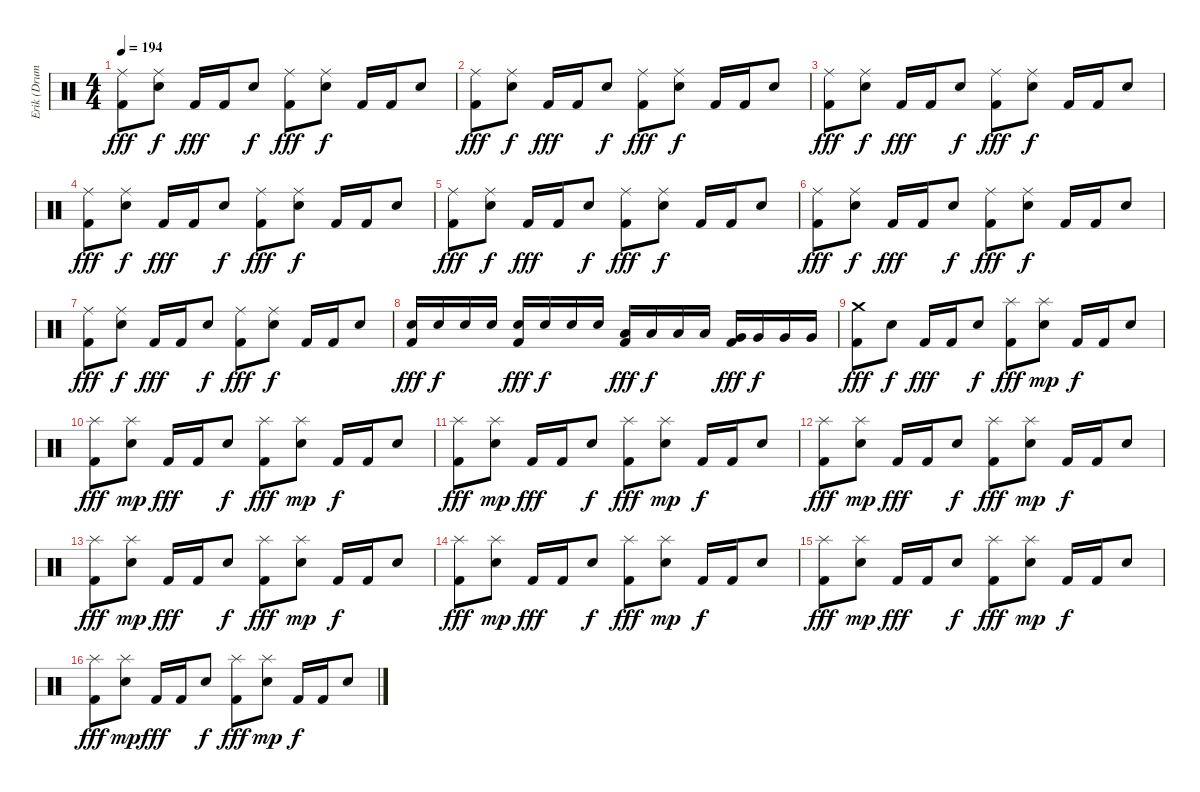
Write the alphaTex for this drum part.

\track ("Erik (Drums)" "Erik (Drum") {instrument percussion}
\staff {score}
\articulation defaults
\ts (4 4)
\tempo 194
\clef neutral
\ks c
("Ride (middle)" "Kick (hit) 2").8{dy fff} ("Ride (middle)" "Electric Snare (hit)").8{dy f} "Kick (hit) 2".16{dy fff} "Kick (hit) 2".16 "Electric Snare (hit)".8{dy f} ("Ride (middle)" "Kick (hit) 2").8{dy fff} ("Ride (middle)" "Electric Snare (hit)").8{dy f} "Kick (hit) 2".16 "Kick (hit) 2".16 "Electric Snare (hit)".8 |
("Ride (middle)" "Kick (hit) 2").8{dy fff} ("Ride (middle)" "Electric Snare (hit)").8{dy f} "Kick (hit) 2".16{dy fff} "Kick (hit) 2".16 "Electric Snare (hit)".8{dy f} ("Ride (middle)" "Kick (hit) 2").8{dy fff} ("Ride (middle)" "Electric Snare (hit)").8{dy f} "Kick (hit) 2".16 "Kick (hit) 2".16 "Electric Snare (hit)".8 |
("Ride (middle)" "Kick (hit) 2").8{dy fff} ("Ride (middle)" "Electric Snare (hit)").8{dy f} "Kick (hit) 2".16{dy fff} "Kick (hit) 2".16 "Electric Snare (hit)".8{dy f} ("Ride (middle)" "Kick (hit) 2").8{dy fff} ("Ride (middle)" "Electric Snare (hit)").8{dy f} "Kick (hit) 2".16 "Kick (hit) 2".16 "Electric Snare (hit)".8 |
("Ride (middle)" "Kick (hit) 2").8{dy fff} ("Ride (middle)" "Electric Snare (hit)").8{dy f} "Kick (hit) 2".16{dy fff} "Kick (hit) 2".16 "Electric Snare (hit)".8{dy f} ("Ride (middle)" "Kick (hit) 2").8{dy fff} ("Ride (middle)" "Electric Snare (hit)").8{dy f} "Kick (hit) 2".16 "Kick (hit) 2".16 "Electric Snare (hit)".8 |
("Ride (middle)" "Kick (hit) 2").8{dy fff} ("Ride (middle)" "Electric Snare (hit)").8{dy f} "Kick (hit) 2".16{dy fff} "Kick (hit) 2".16 "Electric Snare (hit)".8{dy f} ("Ride (middle)" "Kick (hit) 2").8{dy fff} ("Ride (middle)" "Electric Snare (hit)").8{dy f} "Kick (hit) 2".16 "Kick (hit) 2".16 "Electric Snare (hit)".8 |
("Ride (middle)" "Kick (hit) 2").8{dy fff} ("Ride (middle)" "Electric Snare (hit)").8{dy f} "Kick (hit) 2".16{dy fff} "Kick (hit) 2".16 "Electric Snare (hit)".8{dy f} ("Ride (middle)" "Kick (hit) 2").8{dy fff} ("Ride (middle)" "Electric Snare (hit)").8{dy f} "Kick (hit) 2".16 "Kick (hit) 2".16 "Electric Snare (hit)".8 |
("Ride (middle)" "Kick (hit) 2").8{dy fff} ("Ride (middle)" "Electric Snare (hit)").8{dy f} "Kick (hit) 2".16{dy fff} "Kick (hit) 2".16 "Electric Snare (hit)".8{dy f} ("Ride (middle)" "Kick (hit) 2").8{dy fff} ("Ride (middle)" "Electric Snare (hit)").8{dy f} "Kick (hit) 2".16 "Kick (hit) 2".16 "Electric Snare (hit)".8 |
("Electric Snare (hit)" "Kick (hit) 2").16{dy fff} "Electric Snare (hit)".16{dy f} "Electric Snare (hit)".16 "Electric Snare (hit)".16 ("Electric Snare (hit)" "Kick (hit) 2").16{dy fff} "Electric Snare (hit)".16{dy f} "Electric Snare (hit)".16 "Electric Snare (hit)".16 ("Low Tom (hit)" "Kick (hit) 2").16{dy fff} "Low Tom (hit)".16{dy f} "Low Tom (hit)".16 "Low Tom (hit)".16 ("Very Low Tom (hit)" "Kick (hit) 2").16{dy fff} "Very Low Tom (hit)".16{dy f} "Very Low Tom (hit)".16 "Very Low Tom (hit)".16 |
("Crash medium (hit)" "Kick (hit) 2").8{dy fff} "Electric Snare (hit)".8{dy f} "Kick (hit) 2".16{dy fff} "Kick (hit) 2".16 "Electric Snare (hit)".8{dy f} ("Splash (hit)" "Kick (hit) 2").8{dy fff} ("Splash (hit)" "Electric Snare (hit)").8{dy mp} "Kick (hit) 2".16{dy f} "Kick (hit) 2".16 "Electric Snare (hit)".8 |
("Splash (hit)" "Kick (hit) 2").8{dy fff} ("Splash (hit)" "Electric Snare (hit)").8{dy mp} "Kick (hit) 2".16{dy fff} "Kick (hit) 2".16 "Electric Snare (hit)".8{dy f} ("Splash (hit)" "Kick (hit) 2").8{dy fff} ("Splash (hit)" "Electric Snare (hit)").8{dy mp} "Kick (hit) 2".16{dy f} "Kick (hit) 2".16 "Electric Snare (hit)".8 |
("Splash (hit)" "Kick (hit) 2").8{dy fff} ("Splash (hit)" "Electric Snare (hit)").8{dy mp} "Kick (hit) 2".16{dy fff} "Kick (hit) 2".16 "Electric Snare (hit)".8{dy f} ("Splash (hit)" "Kick (hit) 2").8{dy fff} ("Splash (hit)" "Electric Snare (hit)").8{dy mp} "Kick (hit) 2".16{dy f} "Kick (hit) 2".16 "Electric Snare (hit)".8 |
("Splash (hit)" "Kick (hit) 2").8{dy fff} ("Splash (hit)" "Electric Snare (hit)").8{dy mp} "Kick (hit) 2".16{dy fff} "Kick (hit) 2".16 "Electric Snare (hit)".8{dy f} ("Splash (hit)" "Kick (hit) 2").8{dy fff} ("Splash (hit)" "Electric Snare (hit)").8{dy mp} "Kick (hit) 2".16{dy f} "Kick (hit) 2".16 "Electric Snare (hit)".8 |
("Splash (hit)" "Kick (hit) 2").8{dy fff} ("Splash (hit)" "Electric Snare (hit)").8{dy mp} "Kick (hit) 2".16{dy fff} "Kick (hit) 2".16 "Electric Snare (hit)".8{dy f} ("Splash (hit)" "Kick (hit) 2").8{dy fff} ("Splash (hit)" "Electric Snare (hit)").8{dy mp} "Kick (hit) 2".16{dy f} "Kick (hit) 2".16 "Electric Snare (hit)".8 |
("Splash (hit)" "Kick (hit) 2").8{dy fff} ("Splash (hit)" "Electric Snare (hit)").8{dy mp} "Kick (hit) 2".16{dy fff} "Kick (hit) 2".16 "Electric Snare (hit)".8{dy f} ("Splash (hit)" "Kick (hit) 2").8{dy fff} ("Splash (hit)" "Electric Snare (hit)").8{dy mp} "Kick (hit) 2".16{dy f} "Kick (hit) 2".16 "Electric Snare (hit)".8 |
("Splash (hit)" "Kick (hit) 2").8{dy fff} ("Splash (hit)" "Electric Snare (hit)").8{dy mp} "Kick (hit) 2".16{dy fff} "Kick (hit) 2".16 "Electric Snare (hit)".8{dy f} ("Splash (hit)" "Kick (hit) 2").8{dy fff} ("Splash (hit)" "Electric Snare (hit)").8{dy mp} "Kick (hit) 2".16{dy f} "Kick (hit) 2".16 "Electric Snare (hit)".8 |
("Splash (hit)" "Kick (hit) 2").8{dy fff} ("Splash (hit)" "Electric Snare (hit)").8{dy mp} "Kick (hit) 2".16{dy fff} "Kick (hit) 2".16 "Electric Snare (hit)".8{dy f} ("Splash (hit)" "Kick (hit) 2").8{dy fff} ("Splash (hit)" "Electric Snare (hit)").8{dy mp} "Kick (hit) 2".16{dy f} "Kick (hit) 2".16 "Electric Snare (hit)".8
